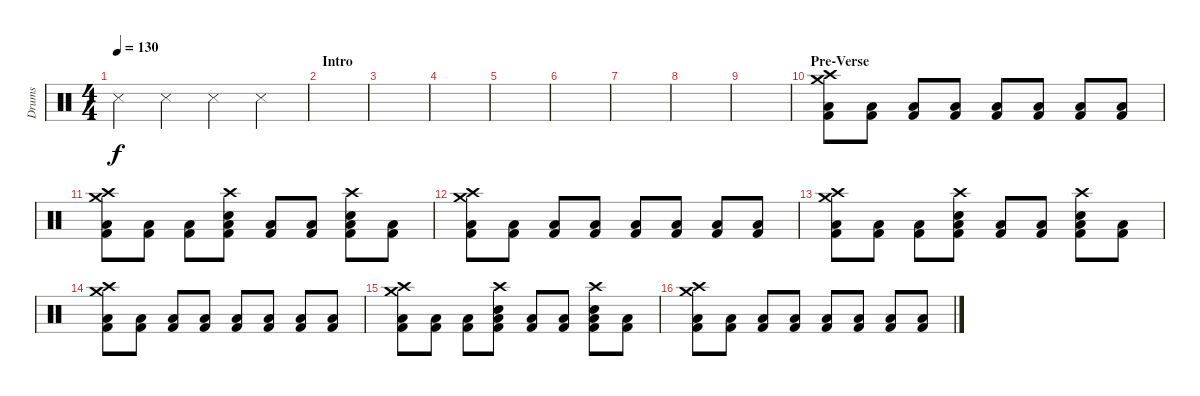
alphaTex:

\track ("Drums" "Drums") {instrument percussion}
\staff {score}
\articulation defaults
\ts (4 4)
\tempo 130
\clef neutral
\ks c "Snare (side stick) 3".4{dy f} "Snare (side stick) 3".4 "Snare (side stick) 3".4 "Snare (side stick) 3".4
|
\section ("" "Intro")
|
|
|
|
|
|
|
|
\section ("" "Pre-Verse")
("Crash medium (hit)" "Crash high (hit)" "Low Tom (hit)" "Kick (hit) 2").8 ("Low Tom (hit)" "Kick (hit) 2").8 ("Low Tom (hit)" "Kick (hit) 2").8 ("Low Tom (hit)" "Kick (hit) 2").8 ("Low Tom (hit)" "Kick (hit) 2").8 ("Low Tom (hit)" "Kick (hit) 2").8 ("Low Tom (hit)" "Kick (hit) 2").8 ("Low Tom (hit)" "Kick (hit) 2").8 |
("Crash medium (hit)" "Crash high (hit)" "Low Tom (hit)" "Kick (hit) 2").8 ("Low Tom (hit)" "Kick (hit) 2").8 ("Low Tom (hit)" "Kick (hit) 2").8 ("Crash high (hit)" "Electric Snare (hit)" "Low Tom (hit)" "Kick (hit) 2").8 ("Low Tom (hit)" "Kick (hit) 2").8 ("Low Tom (hit)" "Kick (hit) 2").8 ("Electric Snare (hit)" "Crash high (hit)" "Low Tom (hit)" "Kick (hit) 2").8 ("Low Tom (hit)" "Kick (hit) 2").8 |
("Crash medium (hit)" "Crash high (hit)" "Low Tom (hit)" "Kick (hit) 2").8 ("Low Tom (hit)" "Kick (hit) 2").8 ("Low Tom (hit)" "Kick (hit) 2").8 ("Low Tom (hit)" "Kick (hit) 2").8 ("Low Tom (hit)" "Kick (hit) 2").8 ("Low Tom (hit)" "Kick (hit) 2").8 ("Low Tom (hit)" "Kick (hit) 2").8 ("Low Tom (hit)" "Kick (hit) 2").8 |
("Crash medium (hit)" "Crash high (hit)" "Low Tom (hit)" "Kick (hit) 2").8 ("Low Tom (hit)" "Kick (hit) 2").8 ("Low Tom (hit)" "Kick (hit) 2").8 ("Crash high (hit)" "Electric Snare (hit)" "Low Tom (hit)" "Kick (hit) 2").8 ("Low Tom (hit)" "Kick (hit) 2").8 ("Low Tom (hit)" "Kick (hit) 2").8 ("Electric Snare (hit)" "Crash high (hit)" "Low Tom (hit)" "Kick (hit) 2").8 ("Low Tom (hit)" "Kick (hit) 2").8 |
("Crash medium (hit)" "Crash high (hit)" "Low Tom (hit)" "Kick (hit) 2").8 ("Low Tom (hit)" "Kick (hit) 2").8 ("Low Tom (hit)" "Kick (hit) 2").8 ("Low Tom (hit)" "Kick (hit) 2").8 ("Low Tom (hit)" "Kick (hit) 2").8 ("Low Tom (hit)" "Kick (hit) 2").8 ("Low Tom (hit)" "Kick (hit) 2").8 ("Low Tom (hit)" "Kick (hit) 2").8 |
("Crash medium (hit)" "Crash high (hit)" "Low Tom (hit)" "Kick (hit) 2").8 ("Low Tom (hit)" "Kick (hit) 2").8 ("Low Tom (hit)" "Kick (hit) 2").8 ("Crash high (hit)" "Electric Snare (hit)" "Low Tom (hit)" "Kick (hit) 2").8 ("Low Tom (hit)" "Kick (hit) 2").8 ("Low Tom (hit)" "Kick (hit) 2").8 ("Electric Snare (hit)" "Crash high (hit)" "Low Tom (hit)" "Kick (hit) 2").8 ("Low Tom (hit)" "Kick (hit) 2").8 |
("Crash medium (hit)" "Crash high (hit)" "Low Tom (hit)" "Kick (hit) 2").8 ("Low Tom (hit)" "Kick (hit) 2").8 ("Low Tom (hit)" "Kick (hit) 2").8 ("Low Tom (hit)" "Kick (hit) 2").8 ("Low Tom (hit)" "Kick (hit) 2").8 ("Low Tom (hit)" "Kick (hit) 2").8 ("Low Tom (hit)" "Kick (hit) 2").8 ("Low Tom (hit)" "Kick (hit) 2").8
